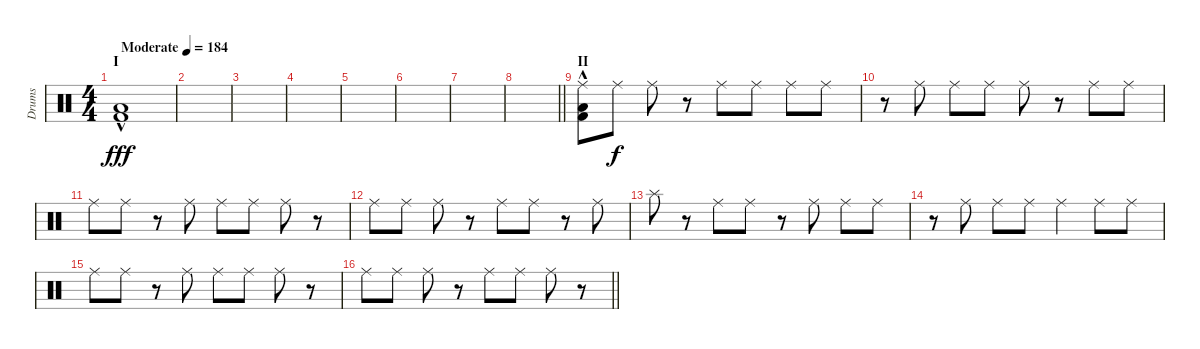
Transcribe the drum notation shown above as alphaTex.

\track ("Drums" "Drums") {instrument percussion}
\staff {score}
\articulation defaults
\ts (4 4)
\section ("" "I")
\tempo (184 "Moderate")
\clef neutral
\ks c
("Low Floor Tom (hit)"{hac} "Kick (hit) 2"{hac}).1{dy fff} |
|
|
|
|
|
|
\barLineRight lightlight
|
\section ("" "II")
("Ride (middle)" "Low Floor Tom (hit)"{hac} "Kick (hit) 2"{hac}).8 "Ride (middle)".8{dy f} "Ride (middle)".8 r.8 "Ride (middle)".8 "Ride (middle)".8 "Ride (middle)".8 "Ride (middle)".8 |
r.8 "Ride (middle)".8 "Ride (middle)".8 "Ride (middle)".8 "Ride (middle)".8 r.8 "Ride (middle)".8 "Ride (middle)".8 |
"Ride (middle)".8 "Ride (middle)".8 r.8 "Ride (middle)".8 "Ride (middle)".8 "Ride (middle)".8 "Ride (middle)".8 r.8 |
"Ride (middle)".8 "Ride (middle)".8 "Ride (middle)".8 r.8 "Ride (middle)".8 "Ride (middle)".8 r.8 "Ride (middle)".8 |
"Splash (hit)".8 r.8 "Ride (middle)".8 "Ride (middle)".8 r.8 "Ride (middle)".8 "Ride (middle)".8 "Ride (middle)".8 |
r.8 "Ride (middle)".8 "Ride (middle)".8 "Ride (middle)".8 "Ride (middle)".4 "Ride (middle)".8 "Ride (middle)".8 |
"Ride (middle)".8 "Ride (middle)".8 r.8 "Ride (middle)".8 "Ride (middle)".8 "Ride (middle)".8 "Ride (middle)".8 r.8 |
\barLineRight lightlight "Ride (middle)".8 "Ride (middle)".8 "Ride (middle)".8
r.8 "Ride (middle)".8 "Ride (middle)".8 "Ride (middle)".8 r.8
